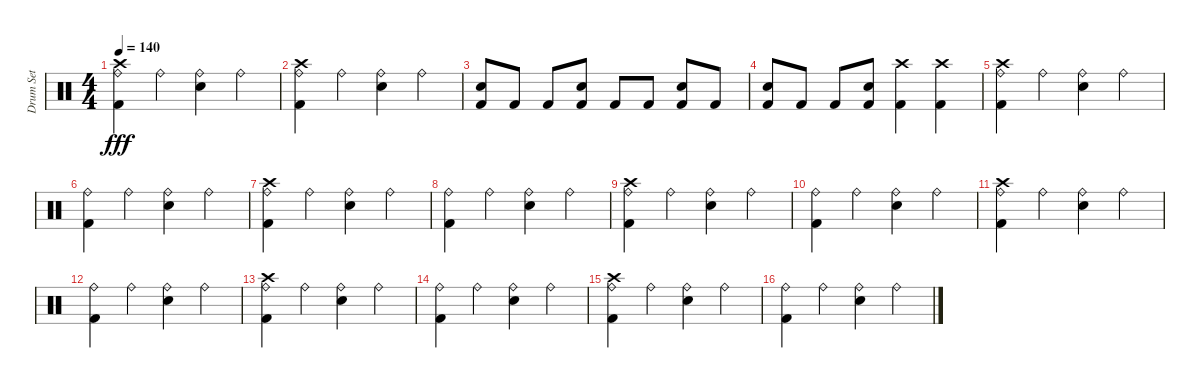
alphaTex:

\track ("Drum Set" "Drum Set") {instrument percussion}
\staff {score}
\articulation defaults
\ts (4 4)
\tempo 140
\clef neutral
\ks c
("Kick (hit) 2" "Ride (bell)" "Crash high (hit)").4{dy fff} "Ride (bell)".4 ("Electric Snare (hit)" "Ride (bell)").4 "Ride (bell)".4 |
("Kick (hit) 2" "Ride (bell)" "Crash high (hit)").4 "Ride (bell)".4 ("Electric Snare (hit)" "Ride (bell)").4 "Ride (bell)".4 |
("Electric Snare (hit)" "Kick (hit) 2").8 "Kick (hit) 2".8 "Kick (hit) 2".8 ("Electric Snare (hit)" "Kick (hit) 2").8 "Kick (hit) 2".8 "Kick (hit) 2".8 ("Electric Snare (hit)" "Kick (hit) 2").8 "Kick (hit) 2".8 |
("Electric Snare (hit)" "Kick (hit) 2").8 "Kick (hit) 2".8 "Kick (hit) 2".8 ("Electric Snare (hit)" "Kick (hit) 2").8 ("Crash high (hit)" "Kick (hit) 2").4 ("Crash high (hit)" "Kick (hit) 2").4 |
("Kick (hit) 2" "Crash high (hit)" "Ride (bell)").4 "Ride (bell)".4 ("Electric Snare (hit)" "Ride (bell)").4 "Ride (bell)".4 |
("Kick (hit) 2" "Ride (bell)").4 "Ride (bell)".4 ("Electric Snare (hit)" "Ride (bell)").4 "Ride (bell)".4 |
("Kick (hit) 2" "Crash high (hit)" "Ride (bell)").4 "Ride (bell)".4 ("Electric Snare (hit)" "Ride (bell)").4 "Ride (bell)".4 |
("Kick (hit) 2" "Ride (bell)").4 "Ride (bell)".4 ("Electric Snare (hit)" "Ride (bell)").4 "Ride (bell)".4 |
("Kick (hit) 2" "Crash high (hit)" "Ride (bell)").4 "Ride (bell)".4 ("Electric Snare (hit)" "Ride (bell)").4 "Ride (bell)".4 |
("Kick (hit) 2" "Ride (bell)").4 "Ride (bell)".4 ("Electric Snare (hit)" "Ride (bell)").4 "Ride (bell)".4 |
("Kick (hit) 2" "Crash high (hit)" "Ride (bell)").4 "Ride (bell)".4 ("Electric Snare (hit)" "Ride (bell)").4 "Ride (bell)".4 |
("Kick (hit) 2" "Ride (bell)").4 "Ride (bell)".4 ("Electric Snare (hit)" "Ride (bell)").4 "Ride (bell)".4 |
("Kick (hit) 2" "Crash high (hit)" "Ride (bell)").4 "Ride (bell)".4 ("Electric Snare (hit)" "Ride (bell)").4 "Ride (bell)".4 |
("Kick (hit) 2" "Ride (bell)").4 "Ride (bell)".4 ("Electric Snare (hit)" "Ride (bell)").4 "Ride (bell)".4 |
("Kick (hit) 2" "Ride (bell)" "Crash high (hit)").4 "Ride (bell)".4 ("Electric Snare (hit)" "Ride (bell)").4 "Ride (bell)".4 |
("Kick (hit) 2" "Ride (bell)").4 "Ride (bell)".4 ("Electric Snare (hit)" "Ride (bell)").4 "Ride (bell)".4
